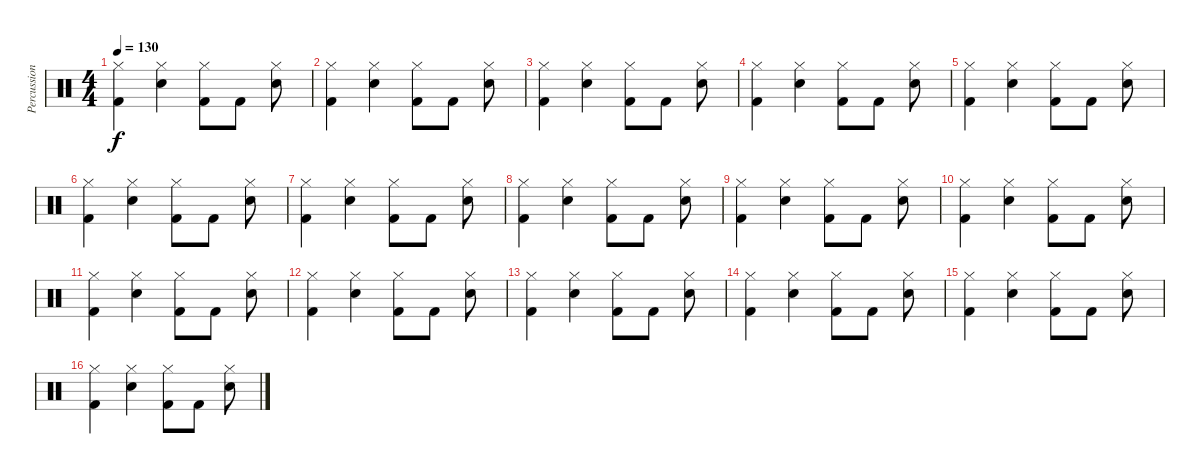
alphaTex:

\track ("Percussion" "Percussion") {instrument percussion}
\staff {score}
\articulation defaults
\ts (4 4)
\tempo 130
\clef neutral
\ks c
("Kick (hit) 2" "Hi-Hat (closed)").4{dy f} ("Electric Snare (hit)" "Hi-Hat (closed)").4 ("Kick (hit) 2" "Hi-Hat (closed)").8 "Kick (hit) 2".8 ("Electric Snare (hit)" "Hi-Hat (closed)").8 |
("Kick (hit) 2" "Hi-Hat (closed)").4 ("Electric Snare (hit)" "Hi-Hat (closed)").4 ("Kick (hit) 2" "Hi-Hat (closed)").8 "Kick (hit) 2".8 ("Electric Snare (hit)" "Hi-Hat (closed)").8 |
("Kick (hit) 2" "Hi-Hat (closed)").4 ("Electric Snare (hit)" "Hi-Hat (closed)").4 ("Kick (hit) 2" "Hi-Hat (closed)").8 "Kick (hit) 2".8 ("Electric Snare (hit)" "Hi-Hat (closed)").8 |
("Kick (hit) 2" "Hi-Hat (closed)").4 ("Electric Snare (hit)" "Hi-Hat (closed)").4 ("Kick (hit) 2" "Hi-Hat (closed)").8 "Kick (hit) 2".8 ("Electric Snare (hit)" "Hi-Hat (closed)").8 |
("Kick (hit) 2" "Hi-Hat (closed)").4 ("Electric Snare (hit)" "Hi-Hat (closed)").4 ("Kick (hit) 2" "Hi-Hat (closed)").8 "Kick (hit) 2".8 ("Electric Snare (hit)" "Hi-Hat (closed)").8 |
("Kick (hit) 2" "Hi-Hat (closed)").4 ("Electric Snare (hit)" "Hi-Hat (closed)").4 ("Kick (hit) 2" "Hi-Hat (closed)").8 "Kick (hit) 2".8 ("Electric Snare (hit)" "Hi-Hat (closed)").8 |
("Kick (hit) 2" "Hi-Hat (closed)").4 ("Electric Snare (hit)" "Hi-Hat (closed)").4 ("Kick (hit) 2" "Hi-Hat (closed)").8 "Kick (hit) 2".8 ("Electric Snare (hit)" "Hi-Hat (closed)").8 |
("Kick (hit) 2" "Hi-Hat (closed)").4 ("Electric Snare (hit)" "Hi-Hat (closed)").4 ("Kick (hit) 2" "Hi-Hat (closed)").8 "Kick (hit) 2".8 ("Electric Snare (hit)" "Hi-Hat (closed)").8 |
("Kick (hit) 2" "Hi-Hat (closed)").4 ("Electric Snare (hit)" "Hi-Hat (closed)").4 ("Kick (hit) 2" "Hi-Hat (closed)").8 "Kick (hit) 2".8 ("Electric Snare (hit)" "Hi-Hat (closed)").8 |
("Kick (hit) 2" "Hi-Hat (closed)").4 ("Electric Snare (hit)" "Hi-Hat (closed)").4 ("Kick (hit) 2" "Hi-Hat (closed)").8 "Kick (hit) 2".8 ("Electric Snare (hit)" "Hi-Hat (closed)").8 |
("Kick (hit) 2" "Hi-Hat (closed)").4 ("Electric Snare (hit)" "Hi-Hat (closed)").4 ("Kick (hit) 2" "Hi-Hat (closed)").8 "Kick (hit) 2".8 ("Electric Snare (hit)" "Hi-Hat (closed)").8 |
("Kick (hit) 2" "Hi-Hat (closed)").4 ("Electric Snare (hit)" "Hi-Hat (closed)").4 ("Kick (hit) 2" "Hi-Hat (closed)").8 "Kick (hit) 2".8 ("Electric Snare (hit)" "Hi-Hat (closed)").8 |
("Kick (hit) 2" "Hi-Hat (closed)").4 ("Electric Snare (hit)" "Hi-Hat (closed)").4 ("Kick (hit) 2" "Hi-Hat (closed)").8 "Kick (hit) 2".8 ("Electric Snare (hit)" "Hi-Hat (closed)").8 |
("Kick (hit) 2" "Hi-Hat (closed)").4 ("Electric Snare (hit)" "Hi-Hat (closed)").4 ("Kick (hit) 2" "Hi-Hat (closed)").8 "Kick (hit) 2".8 ("Electric Snare (hit)" "Hi-Hat (closed)").8 |
("Kick (hit) 2" "Hi-Hat (closed)").4 ("Electric Snare (hit)" "Hi-Hat (closed)").4 ("Kick (hit) 2" "Hi-Hat (closed)").8 "Kick (hit) 2".8 ("Electric Snare (hit)" "Hi-Hat (closed)").8 |
("Kick (hit) 2" "Hi-Hat (closed)").4 ("Electric Snare (hit)" "Hi-Hat (closed)").4 ("Kick (hit) 2" "Hi-Hat (closed)").8 "Kick (hit) 2".8 ("Electric Snare (hit)" "Hi-Hat (closed)").8
